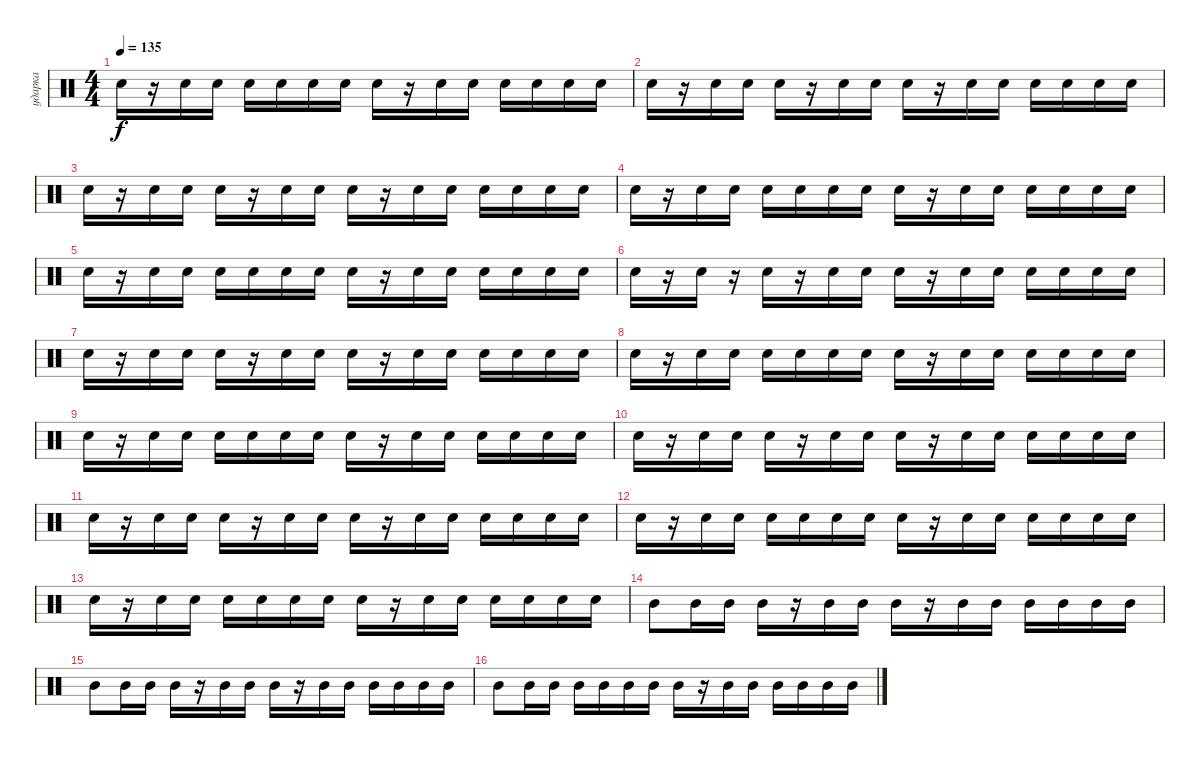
\track ("ударка" "ударка") {instrument percussion}
\staff {score}
\articulation defaults
\ts (4 4)
\tempo 135
\clef neutral
\ks c "Snare (hit) 2".16{dy f}
r.16 "Snare (hit) 2".16 "Snare (hit) 2".16 "Snare (hit) 2".16 "Snare (hit) 2".16 "Snare (hit) 2".16 "Snare (hit) 2".16 "Snare (hit) 2".16 r.16 "Snare (hit) 2".16 "Snare (hit) 2".16 "Snare (hit) 2".16 "Snare (hit) 2".16 "Snare (hit) 2".16 "Snare (hit) 2".16 |
"Snare (hit) 2".16 r.16 "Snare (hit) 2".16 "Snare (hit) 2".16 "Snare (hit) 2".16 r.16 "Snare (hit) 2".16 "Snare (hit) 2".16 "Snare (hit) 2".16 r.16 "Snare (hit) 2".16 "Snare (hit) 2".16 "Snare (hit) 2".16 "Snare (hit) 2".16 "Snare (hit) 2".16 "Snare (hit) 2".16 |
"Snare (hit) 2".16 r.16 "Snare (hit) 2".16 "Snare (hit) 2".16 "Snare (hit) 2".16 r.16 "Snare (hit) 2".16 "Snare (hit) 2".16 "Snare (hit) 2".16 r.16 "Snare (hit) 2".16 "Snare (hit) 2".16 "Snare (hit) 2".16 "Snare (hit) 2".16 "Snare (hit) 2".16 "Snare (hit) 2".16 |
"Snare (hit) 2".16 r.16 "Snare (hit) 2".16 "Snare (hit) 2".16 "Snare (hit) 2".16 "Snare (hit) 2".16 "Snare (hit) 2".16 "Snare (hit) 2".16 "Snare (hit) 2".16 r.16 "Snare (hit) 2".16 "Snare (hit) 2".16 "Snare (hit) 2".16 "Snare (hit) 2".16 "Snare (hit) 2".16 "Snare (hit) 2".16 |
"Snare (hit) 2".16 r.16 "Snare (hit) 2".16 "Snare (hit) 2".16 "Snare (hit) 2".16 "Snare (hit) 2".16 "Snare (hit) 2".16 "Snare (hit) 2".16 "Snare (hit) 2".16 r.16 "Snare (hit) 2".16 "Snare (hit) 2".16 "Snare (hit) 2".16 "Snare (hit) 2".16 "Snare (hit) 2".16 "Snare (hit) 2".16 |
"Snare (hit) 2".16 r.16 "Snare (hit) 2".16 r.16 "Snare (hit) 2".16 r.16 "Snare (hit) 2".16 "Snare (hit) 2".16 "Snare (hit) 2".16 r.16 "Snare (hit) 2".16 "Snare (hit) 2".16 "Snare (hit) 2".16 "Snare (hit) 2".16 "Snare (hit) 2".16 "Snare (hit) 2".16 |
"Snare (hit) 2".16 r.16 "Snare (hit) 2".16 "Snare (hit) 2".16 "Snare (hit) 2".16 r.16 "Snare (hit) 2".16 "Snare (hit) 2".16 "Snare (hit) 2".16 r.16 "Snare (hit) 2".16 "Snare (hit) 2".16 "Snare (hit) 2".16 "Snare (hit) 2".16 "Snare (hit) 2".16 "Snare (hit) 2".16 |
"Snare (hit) 2".16 r.16 "Snare (hit) 2".16 "Snare (hit) 2".16 "Snare (hit) 2".16 "Snare (hit) 2".16 "Snare (hit) 2".16 "Snare (hit) 2".16 "Snare (hit) 2".16 r.16 "Snare (hit) 2".16 "Snare (hit) 2".16 "Snare (hit) 2".16 "Snare (hit) 2".16 "Snare (hit) 2".16 "Snare (hit) 2".16 |
"Snare (hit) 2".16 r.16 "Snare (hit) 2".16 "Snare (hit) 2".16 "Snare (hit) 2".16 "Snare (hit) 2".16 "Snare (hit) 2".16 "Snare (hit) 2".16 "Snare (hit) 2".16 r.16 "Snare (hit) 2".16 "Snare (hit) 2".16 "Snare (hit) 2".16 "Snare (hit) 2".16 "Snare (hit) 2".16 "Snare (hit) 2".16 |
"Snare (hit) 2".16 r.16 "Snare (hit) 2".16 "Snare (hit) 2".16 "Snare (hit) 2".16 r.16 "Snare (hit) 2".16 "Snare (hit) 2".16 "Snare (hit) 2".16 r.16 "Snare (hit) 2".16 "Snare (hit) 2".16 "Snare (hit) 2".16 "Snare (hit) 2".16 "Snare (hit) 2".16 "Snare (hit) 2".16 |
"Snare (hit) 2".16 r.16 "Snare (hit) 2".16 "Snare (hit) 2".16 "Snare (hit) 2".16 r.16 "Snare (hit) 2".16 "Snare (hit) 2".16 "Snare (hit) 2".16 r.16 "Snare (hit) 2".16 "Snare (hit) 2".16 "Snare (hit) 2".16 "Snare (hit) 2".16 "Snare (hit) 2".16 "Snare (hit) 2".16 |
"Snare (hit) 2".16 r.16 "Snare (hit) 2".16 "Snare (hit) 2".16 "Snare (hit) 2".16 "Snare (hit) 2".16 "Snare (hit) 2".16 "Snare (hit) 2".16 "Snare (hit) 2".16 r.16 "Snare (hit) 2".16 "Snare (hit) 2".16 "Snare (hit) 2".16 "Snare (hit) 2".16 "Snare (hit) 2".16 "Snare (hit) 2".16 |
"Snare (hit) 2".16 r.16 "Snare (hit) 2".16 "Snare (hit) 2".16 "Snare (hit) 2".16 "Snare (hit) 2".16 "Snare (hit) 2".16 "Snare (hit) 2".16 "Snare (hit) 2".16 r.16 "Snare (hit) 2".16 "Snare (hit) 2".16 "Snare (hit) 2".16 "Snare (hit) 2".16 "Snare (hit) 2".16 "Snare (hit) 2".16 |
"Mid Tom (hit)".8 "Mid Tom (hit)".16 "Mid Tom (hit)".16 "Mid Tom (hit)".16 r.16 "Mid Tom (hit)".16 "Mid Tom (hit)".16 "Mid Tom (hit)".16 r.16 "Mid Tom (hit)".16 "Mid Tom (hit)".16 "Mid Tom (hit)".16 "Mid Tom (hit)".16 "Mid Tom (hit)".16 "Mid Tom (hit)".16 |
"Mid Tom (hit)".8 "Mid Tom (hit)".16 "Mid Tom (hit)".16 "Mid Tom (hit)".16 r.16 "Mid Tom (hit)".16 "Mid Tom (hit)".16 "Mid Tom (hit)".16 r.16 "Mid Tom (hit)".16 "Mid Tom (hit)".16 "Mid Tom (hit)".16 "Mid Tom (hit)".16 "Mid Tom (hit)".16 "Mid Tom (hit)".16 |
"Mid Tom (hit)".8 "Mid Tom (hit)".16 "Mid Tom (hit)".16 "Mid Tom (hit)".16 "Mid Tom (hit)".16 "Mid Tom (hit)".16 "Mid Tom (hit)".16 "Mid Tom (hit)".16 r.16 "Mid Tom (hit)".16 "Mid Tom (hit)".16 "Mid Tom (hit)".16 "Mid Tom (hit)".16 "Mid Tom (hit)".16 "Mid Tom (hit)".16
